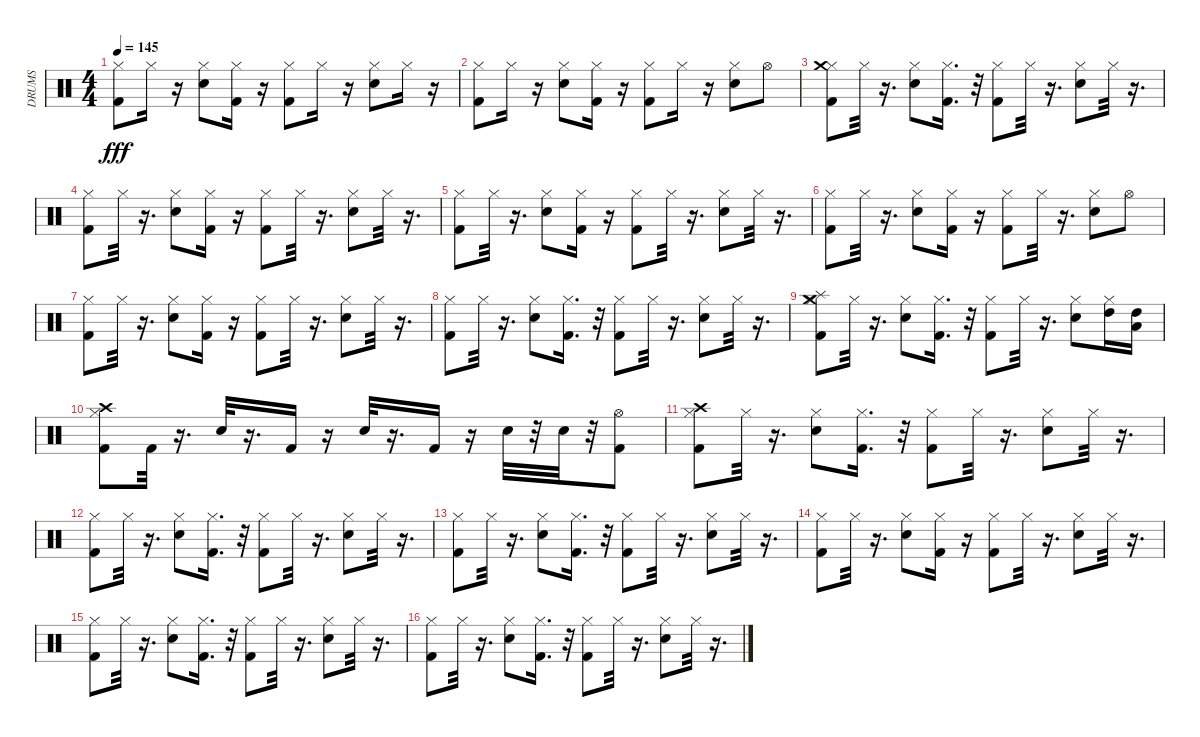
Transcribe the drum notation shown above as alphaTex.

\track ("DRUMS" "DRUMS") {instrument percussion}
\staff {score}
\articulation defaults
\ts (4 4)
\tempo 145
\clef neutral
\ks c
("Kick (hit) 2" "Hi-Hat (closed)").8{dy fff} "Hi-Hat (closed)".16 r.16 ("Electric Snare (hit)" "Hi-Hat (closed)").8 ("Kick (hit) 2" "Hi-Hat (closed)").16 r.16 ("Kick (hit) 2" "Hi-Hat (closed)").8 "Hi-Hat (closed)".16 r.16 ("Electric Snare (hit)" "Hi-Hat (closed)").8 "Hi-Hat (closed)".16 r.16 |
("Kick (hit) 2" "Hi-Hat (closed)").8 "Hi-Hat (closed)".16 r.16 ("Electric Snare (hit)" "Hi-Hat (closed)").8 ("Kick (hit) 2" "Hi-Hat (closed)").16 r.16 ("Kick (hit) 2" "Hi-Hat (closed)").8 "Hi-Hat (closed)".16 r.16 ("Electric Snare (hit)" "Hi-Hat (closed)").8 "Hi-Hat (open)".8 |
("Kick (hit) 2" "Hi-Hat (closed)" "Crash medium (hit)").8 "Hi-Hat (closed)".32 r.16{d} ("Electric Snare (hit)" "Hi-Hat (closed)").8 ("Kick (hit) 2" "Hi-Hat (closed)").16{d} r.32 ("Kick (hit) 2" "Hi-Hat (closed)").8 "Hi-Hat (closed)".32 r.16{d} ("Electric Snare (hit)" "Hi-Hat (closed)").8 "Hi-Hat (closed)".32 r.16{d} |
("Kick (hit) 2" "Hi-Hat (closed)").8 "Hi-Hat (closed)".32 r.16{d} ("Electric Snare (hit)" "Hi-Hat (closed)").8 ("Kick (hit) 2" "Hi-Hat (closed)").16 r.16 ("Kick (hit) 2" "Hi-Hat (closed)").8 "Hi-Hat (closed)".32 r.16{d} ("Electric Snare (hit)" "Hi-Hat (closed)").8 "Hi-Hat (closed)".32 r.16{d} |
("Kick (hit) 2" "Hi-Hat (closed)").8 "Hi-Hat (closed)".32 r.16{d} ("Electric Snare (hit)" "Hi-Hat (closed)").8 ("Kick (hit) 2" "Hi-Hat (closed)").16 r.16 ("Kick (hit) 2" "Hi-Hat (closed)").8 "Hi-Hat (closed)".32 r.16{d} ("Electric Snare (hit)" "Hi-Hat (closed)").8 "Hi-Hat (closed)".32 r.16{d} |
("Kick (hit) 2" "Hi-Hat (closed)").8 "Hi-Hat (closed)".32 r.16{d} ("Electric Snare (hit)" "Hi-Hat (closed)").8 ("Kick (hit) 2" "Hi-Hat (closed)").16 r.16 ("Kick (hit) 2" "Hi-Hat (closed)").8 "Hi-Hat (closed)".32 r.16{d} ("Electric Snare (hit)" "Hi-Hat (closed)").8 "Hi-Hat (open)".8 |
("Kick (hit) 2" "Hi-Hat (closed)").8 "Hi-Hat (closed)".32 r.16{d} ("Electric Snare (hit)" "Hi-Hat (closed)").8 ("Kick (hit) 2" "Hi-Hat (closed)").16 r.16 ("Kick (hit) 2" "Hi-Hat (closed)").8 "Hi-Hat (closed)".32 r.16{d} ("Electric Snare (hit)" "Hi-Hat (closed)").8 "Hi-Hat (closed)".32 r.16{d} |
("Kick (hit) 2" "Hi-Hat (closed)").8 "Hi-Hat (closed)".32 r.16{d} ("Electric Snare (hit)" "Hi-Hat (closed)").8 ("Kick (hit) 2" "Hi-Hat (closed)").16{d} r.32 ("Kick (hit) 2" "Hi-Hat (closed)").8 "Hi-Hat (closed)".32 r.16{d} ("Electric Snare (hit)" "Hi-Hat (closed)").8 "Hi-Hat (closed)".32 r.16{d} |
("Kick (hit) 2" "Hi-Hat (closed)" "Splash (hit)" "Crash medium (hit)").8 "Hi-Hat (closed)".32 r.16{d} ("Electric Snare (hit)" "Hi-Hat (closed)").8 ("Kick (hit) 2" "Hi-Hat (closed)").16{d} r.32 ("Kick (hit) 2" "Hi-Hat (closed)").8 "Hi-Hat (closed)".32 r.16{d} ("Electric Snare (hit)" "Hi-Hat (closed)").8 ("Hi-Hat (closed)" "High Tom (hit)").16 ("Low Tom (hit)" "High Tom (hit)").16 |
("Kick (hit) 2" "Hi-Hat (closed)" "Crash high (hit)").8 "Kick (hit) 2".32 r.16{d} "Electric Snare (hit)".32 r.16{d} "Kick (hit) 2".16 r.16 "Electric Snare (hit)".32 r.16{d} "Kick (hit) 2".16 r.16 "Electric Snare (hit)".32 r.32 "Electric Snare (hit)".32 r.32 ("Kick (hit) 2" "Hi-Hat (open)").8 |
("Kick (hit) 2" "Hi-Hat (closed)" "Crash high (hit)").8 "Hi-Hat (closed)".32 r.16{d} ("Electric Snare (hit)" "Hi-Hat (closed)").8 ("Kick (hit) 2" "Hi-Hat (closed)").16{d} r.32 ("Kick (hit) 2" "Hi-Hat (closed)").8 "Hi-Hat (closed)".32 r.16{d} ("Electric Snare (hit)" "Hi-Hat (closed)").8 "Hi-Hat (closed)".32 r.16{d} |
("Kick (hit) 2" "Hi-Hat (closed)").8 "Hi-Hat (closed)".32 r.16{d} ("Electric Snare (hit)" "Hi-Hat (closed)").8 ("Kick (hit) 2" "Hi-Hat (closed)").16{d} r.32 ("Kick (hit) 2" "Hi-Hat (closed)").8 "Hi-Hat (closed)".32 r.16{d} ("Electric Snare (hit)" "Hi-Hat (closed)").8 "Hi-Hat (closed)".32 r.16{d} |
("Kick (hit) 2" "Hi-Hat (closed)").8 "Hi-Hat (closed)".32 r.16{d} ("Electric Snare (hit)" "Hi-Hat (closed)").8 ("Kick (hit) 2" "Hi-Hat (closed)").16{d} r.32 ("Kick (hit) 2" "Hi-Hat (closed)").8 "Hi-Hat (closed)".32 r.16{d} ("Electric Snare (hit)" "Hi-Hat (closed)").8 "Hi-Hat (closed)".32 r.16{d} |
("Kick (hit) 2" "Hi-Hat (closed)").8 "Hi-Hat (closed)".32 r.16{d} ("Electric Snare (hit)" "Hi-Hat (closed)").8 ("Kick (hit) 2" "Hi-Hat (closed)").16 r.16 ("Kick (hit) 2" "Hi-Hat (closed)").8 "Hi-Hat (closed)".32 r.16{d} ("Electric Snare (hit)" "Hi-Hat (closed)").8 "Hi-Hat (closed)".32 r.16{d} |
("Kick (hit) 2" "Hi-Hat (closed)").8 "Hi-Hat (closed)".32 r.16{d} ("Electric Snare (hit)" "Hi-Hat (closed)").8 ("Kick (hit) 2" "Hi-Hat (closed)").16{d} r.32 ("Kick (hit) 2" "Hi-Hat (closed)").8 "Hi-Hat (closed)".32 r.16{d} ("Electric Snare (hit)" "Hi-Hat (closed)").8 "Hi-Hat (closed)".32 r.16{d} |
("Kick (hit) 2" "Hi-Hat (closed)").8 "Hi-Hat (closed)".32 r.16{d} ("Electric Snare (hit)" "Hi-Hat (closed)").8 ("Kick (hit) 2" "Hi-Hat (closed)").16{d} r.32 ("Kick (hit) 2" "Hi-Hat (closed)").8 "Hi-Hat (closed)".32 r.16{d} ("Electric Snare (hit)" "Hi-Hat (closed)").8 "Hi-Hat (closed)".32 r.16{d}
